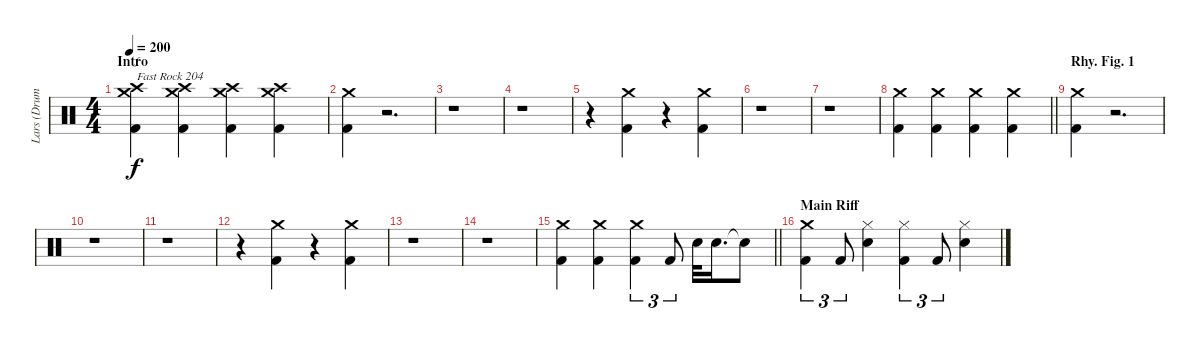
\track ("Lars (Drums)" "Lars (Drum") {instrument percussion}
\staff {score}
\articulation defaults
\chord ("f")
\ts (4 4)
\section ("" "Intro")
\tempo 200
\clef neutral
\ks c
("Crash high (hit)" "Crash medium (hit)" "Kick (hit) 2").4{ch "f" txt "Fast Rock 204" dy f} ("Crash high (hit)" "Crash medium (hit)" "Kick (hit) 2").4 ("Crash high (hit)" "Crash medium (hit)" "Kick (hit) 2").4 ("Crash high (hit)" "Crash medium (hit)" "Kick (hit) 2").4 |
("Kick (hit) 2" "Crash medium (hit)").4 r.2{d} |
r.1 |
r.1 |
r.4 ("Kick (hit) 2" "Crash medium (hit)").4 r.4 ("Kick (hit) 2" "Crash medium (hit)").4 |
r.1 |
r.1 |
\barLineRight lightlight
("Kick (hit) 2" "Crash medium (hit)").4 ("Kick (hit) 2" "Crash medium (hit)").4 ("Kick (hit) 2" "Crash medium (hit)").4 ("Kick (hit) 2" "Crash medium (hit)").4 |
\section ("" "Rhy. Fig. 1")
("Kick (hit) 2" "Crash medium (hit)").4 r.2{d} |
r.1 |
r.1 |
r.4 ("Kick (hit) 2" "Crash medium (hit)").4 r.4 ("Kick (hit) 2" "Crash medium (hit)").4 |
r.1 |
r.1 |
\barLineRight lightlight
("Kick (hit) 2" "Crash medium (hit)").4 ("Kick (hit) 2" "Crash medium (hit)").4 ("Kick (hit) 2" "Crash medium (hit)").4{tu (3 2)} "Kick (hit) 2".8{tu (3 2)} "Snare (hit) 2".32 "Snare (hit) 2".16{d} "Snare (hit)"{t}.8 |
\section ("" "Main Riff")
("Crash medium (hit)" "Kick (hit) 2").4{tu (3 2)} "Kick (hit) 2".8{tu (3 2)} ("Hi-Hat (closed)" "Snare (hit) 2").4 ("Hi-Hat (closed)" "Kick (hit) 2").4{tu (3 2)} "Kick (hit) 2".8{tu (3 2)} ("Snare (hit) 2" "Hi-Hat (closed)").4
